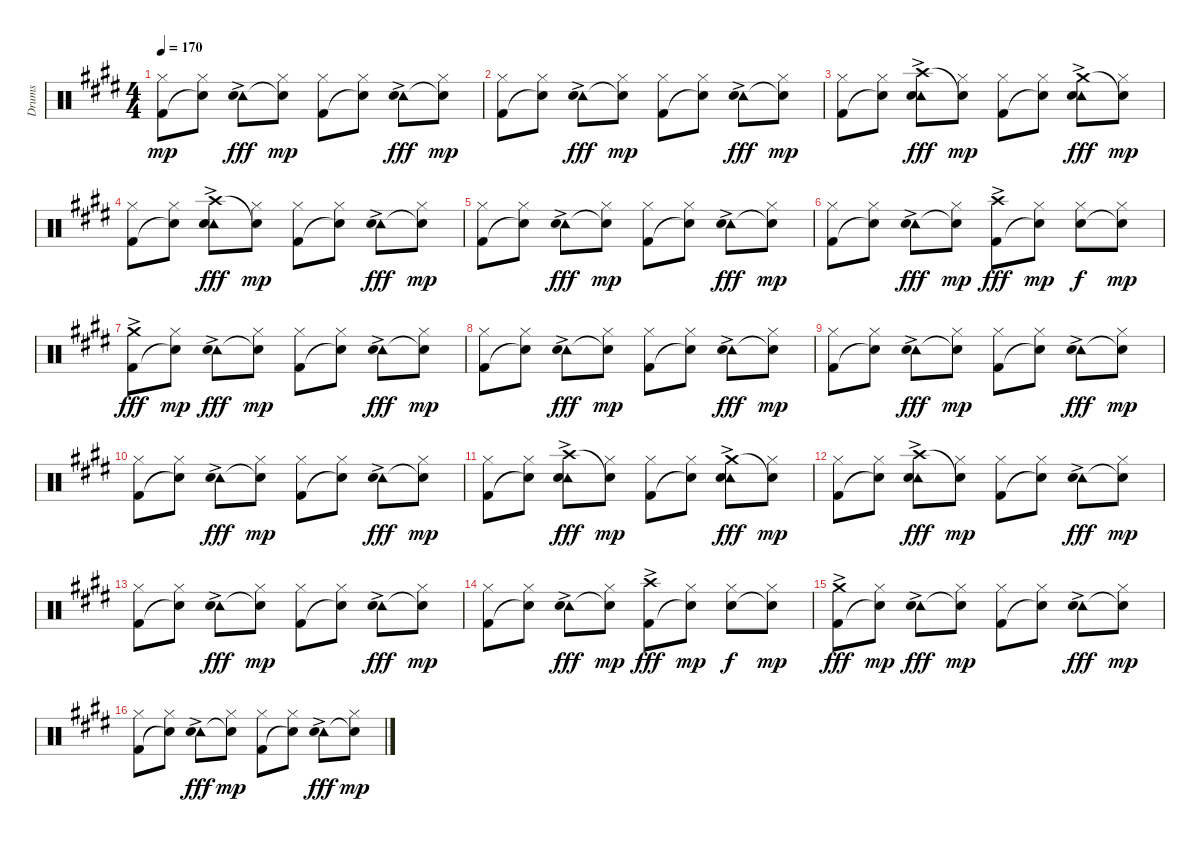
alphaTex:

\track ("Drums" "Drums") {instrument percussion}
\staff {score}
\articulation defaults
\ts (4 4)
\tempo 170
\clef neutral
\ks c#minor
("Hi-Hat (closed)" "Kick (hit) 2").8{dy mp} ("Hi-Hat (closed)" "Snare (hit)"{t}).8 ("Tambourine (hit)"{ac} "Hand Clap (hit)").8{dy fff} ("Hi-Hat (closed)" "Snare (hit)"{t}).8{dy mp} ("Hi-Hat (closed)" "Kick (hit) 2").8 ("Hi-Hat (closed)" "Snare (hit)"{t}).8 ("Tambourine (hit)"{ac} "Hand Clap (hit)").8{dy fff} ("Hi-Hat (closed)" "Snare (hit)"{t}).8{dy mp} |
("Hi-Hat (closed)" "Kick (hit) 2").8 ("Hi-Hat (closed)" "Snare (hit)"{t}).8 ("Tambourine (hit)"{ac} "Hand Clap (hit)").8{dy fff} ("Hi-Hat (closed)" "Snare (hit)"{t}).8{dy mp} ("Hi-Hat (closed)" "Kick (hit) 2").8 ("Hi-Hat (closed)" "Snare (hit)"{t}).8 ("Tambourine (hit)"{ac} "Hand Clap (hit)").8{dy fff} ("Hi-Hat (closed)" "Snare (hit)"{t}).8{dy mp} |
("Hi-Hat (closed)" "Kick (hit) 2").8 ("Hi-Hat (closed)" "Snare (hit)"{t}).8 ("Tambourine (hit)"{ac} "Crash high (hit)"{ac} "Hand Clap (hit)").8{dy fff} ("Hi-Hat (closed)" "Snare (hit)"{t}).8{dy mp} ("Hi-Hat (closed)" "Kick (hit) 2").8 ("Hi-Hat (closed)" "Snare (hit)"{t}).8 ("Tambourine (hit)"{ac} "Crash medium (hit)"{ac} "Hand Clap (hit)").8{dy fff} ("Hi-Hat (closed)" "Snare (hit)"{t}).8{dy mp} |
("Hi-Hat (closed)" "Kick (hit) 2").8 ("Hi-Hat (closed)" "Snare (hit)"{t}).8 ("Tambourine (hit)"{ac} "Crash high (hit)"{ac} "Hand Clap (hit)").8{dy fff} ("Hi-Hat (closed)" "Snare (hit)"{t}).8{dy mp} ("Hi-Hat (closed)" "Kick (hit) 2").8 ("Hi-Hat (closed)" "Snare (hit)"{t}).8 ("Tambourine (hit)"{ac} "Hand Clap (hit)").8{dy fff} ("Hi-Hat (closed)" "Snare (hit)"{t}).8{dy mp} |
("Hi-Hat (closed)" "Kick (hit) 2").8 ("Hi-Hat (closed)" "Snare (hit)"{t}).8 ("Tambourine (hit)"{ac} "Hand Clap (hit)").8{dy fff} ("Hi-Hat (closed)" "Snare (hit)"{t}).8{dy mp} ("Hi-Hat (closed)" "Kick (hit) 2").8 ("Hi-Hat (closed)" "Snare (hit)"{t}).8 ("Tambourine (hit)"{ac} "Hand Clap (hit)").8{dy fff} ("Hi-Hat (closed)" "Snare (hit)"{t}).8{dy mp} |
("Hi-Hat (closed)" "Kick (hit) 2").8 ("Hi-Hat (closed)" "Snare (hit)"{t}).8 ("Tambourine (hit)"{ac} "Hand Clap (hit)").8{dy fff} ("Hi-Hat (closed)" "Snare (hit)"{t}).8{dy mp} ("Crash high (hit)"{ac} "Kick (hit) 2").8{dy fff} ("Hi-Hat (closed)" "Snare (hit)"{t}).8{dy mp} ("Hi-Hat (closed)" "Hand Clap (hit)").8{dy f} ("Hi-Hat (closed)" "Snare (hit)"{t}).8{dy mp} |
("Crash medium (hit)"{ac} "Kick (hit) 2").8{dy fff} ("Hi-Hat (closed)" "Snare (hit)"{t}).8{dy mp} ("Tambourine (hit)"{ac} "Hand Clap (hit)").8{dy fff} ("Hi-Hat (closed)" "Snare (hit)"{t}).8{dy mp} ("Hi-Hat (closed)" "Kick (hit) 2").8 ("Hi-Hat (closed)" "Snare (hit)"{t}).8 ("Tambourine (hit)"{ac} "Hand Clap (hit)").8{dy fff} ("Hi-Hat (closed)" "Snare (hit)"{t}).8{dy mp} |
("Hi-Hat (closed)" "Kick (hit) 2").8 ("Hi-Hat (closed)" "Snare (hit)"{t}).8 ("Tambourine (hit)"{ac} "Hand Clap (hit)").8{dy fff} ("Hi-Hat (closed)" "Snare (hit)"{t}).8{dy mp} ("Hi-Hat (closed)" "Kick (hit) 2").8 ("Hi-Hat (closed)" "Snare (hit)"{t}).8 ("Tambourine (hit)"{ac} "Hand Clap (hit)").8{dy fff} ("Hi-Hat (closed)" "Snare (hit)"{t}).8{dy mp} |
("Hi-Hat (closed)" "Kick (hit) 2").8 ("Hi-Hat (closed)" "Snare (hit)"{t}).8 ("Tambourine (hit)"{ac} "Hand Clap (hit)").8{dy fff} ("Hi-Hat (closed)" "Snare (hit)"{t}).8{dy mp} ("Hi-Hat (closed)" "Kick (hit) 2").8 ("Hi-Hat (closed)" "Snare (hit)"{t}).8 ("Tambourine (hit)"{ac} "Hand Clap (hit)").8{dy fff} ("Hi-Hat (closed)" "Snare (hit)"{t}).8{dy mp} |
("Hi-Hat (closed)" "Kick (hit) 2").8 ("Hi-Hat (closed)" "Snare (hit)"{t}).8 ("Tambourine (hit)"{ac} "Hand Clap (hit)").8{dy fff} ("Hi-Hat (closed)" "Snare (hit)"{t}).8{dy mp} ("Hi-Hat (closed)" "Kick (hit) 2").8 ("Hi-Hat (closed)" "Snare (hit)"{t}).8 ("Tambourine (hit)"{ac} "Hand Clap (hit)").8{dy fff} ("Hi-Hat (closed)" "Snare (hit)"{t}).8{dy mp} |
("Hi-Hat (closed)" "Kick (hit) 2").8 ("Hi-Hat (closed)" "Snare (hit)"{t}).8 ("Tambourine (hit)"{ac} "Crash high (hit)"{ac} "Hand Clap (hit)").8{dy fff} ("Hi-Hat (closed)" "Snare (hit)"{t}).8{dy mp} ("Hi-Hat (closed)" "Kick (hit) 2").8 ("Hi-Hat (closed)" "Snare (hit)"{t}).8 ("Tambourine (hit)"{ac} "Crash medium (hit)"{ac} "Hand Clap (hit)").8{dy fff} ("Hi-Hat (closed)" "Snare (hit)"{t}).8{dy mp} |
("Hi-Hat (closed)" "Kick (hit) 2").8 ("Hi-Hat (closed)" "Snare (hit)"{t}).8 ("Tambourine (hit)"{ac} "Crash high (hit)"{ac} "Hand Clap (hit)").8{dy fff} ("Hi-Hat (closed)" "Snare (hit)"{t}).8{dy mp} ("Hi-Hat (closed)" "Kick (hit) 2").8 ("Hi-Hat (closed)" "Snare (hit)"{t}).8 ("Tambourine (hit)"{ac} "Hand Clap (hit)").8{dy fff} ("Hi-Hat (closed)" "Snare (hit)"{t}).8{dy mp} |
("Hi-Hat (closed)" "Kick (hit) 2").8 ("Hi-Hat (closed)" "Snare (hit)"{t}).8 ("Tambourine (hit)"{ac} "Hand Clap (hit)").8{dy fff} ("Hi-Hat (closed)" "Snare (hit)"{t}).8{dy mp} ("Hi-Hat (closed)" "Kick (hit) 2").8 ("Hi-Hat (closed)" "Snare (hit)"{t}).8 ("Tambourine (hit)"{ac} "Hand Clap (hit)").8{dy fff} ("Hi-Hat (closed)" "Snare (hit)"{t}).8{dy mp} |
("Hi-Hat (closed)" "Kick (hit) 2").8 ("Hi-Hat (closed)" "Snare (hit)"{t}).8 ("Tambourine (hit)"{ac} "Hand Clap (hit)").8{dy fff} ("Hi-Hat (closed)" "Snare (hit)"{t}).8{dy mp} ("Crash high (hit)"{ac} "Kick (hit) 2").8{dy fff} ("Hi-Hat (closed)" "Snare (hit)"{t}).8{dy mp} ("Hi-Hat (closed)" "Hand Clap (hit)").8{dy f} ("Hi-Hat (closed)" "Snare (hit)"{t}).8{dy mp} |
("Crash medium (hit)"{ac} "Kick (hit) 2").8{dy fff} ("Hi-Hat (closed)" "Snare (hit)"{t}).8{dy mp} ("Tambourine (hit)"{ac} "Hand Clap (hit)").8{dy fff} ("Hi-Hat (closed)" "Snare (hit)"{t}).8{dy mp} ("Hi-Hat (closed)" "Kick (hit) 2").8 ("Hi-Hat (closed)" "Snare (hit)"{t}).8 ("Tambourine (hit)"{ac} "Hand Clap (hit)").8{dy fff} ("Hi-Hat (closed)" "Snare (hit)"{t}).8{dy mp} |
("Hi-Hat (closed)" "Kick (hit) 2").8 ("Hi-Hat (closed)" "Snare (hit)"{t}).8 ("Tambourine (hit)"{ac} "Hand Clap (hit)").8{dy fff} ("Hi-Hat (closed)" "Snare (hit)"{t}).8{dy mp} ("Hi-Hat (closed)" "Kick (hit) 2").8 ("Hi-Hat (closed)" "Snare (hit)"{t}).8 ("Tambourine (hit)"{ac} "Hand Clap (hit)").8{dy fff} ("Hi-Hat (closed)" "Snare (hit)"{t}).8{dy mp}
